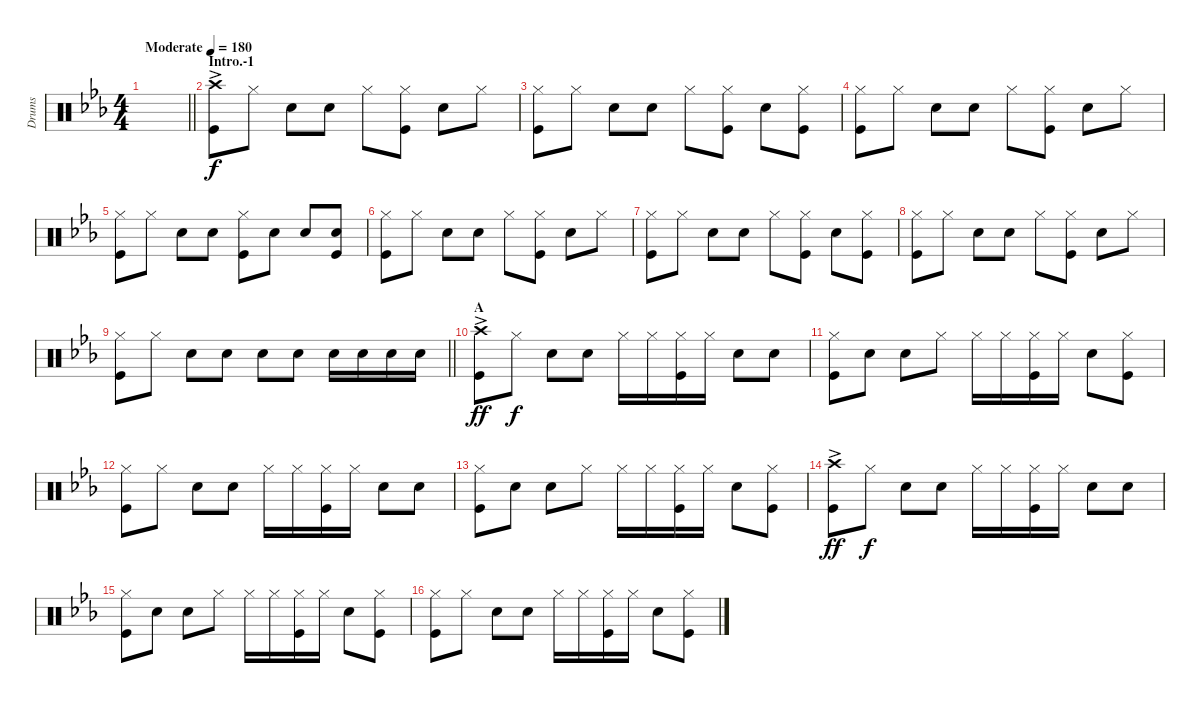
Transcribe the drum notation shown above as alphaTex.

\track ("Drums" "Drums") {instrument percussion}
\staff {score}
\articulation defaults
\ts (4 4)
\tempo (180 "Moderate")
\clef neutral
\barLineRight lightlight
\ks cminor
|
\section ("" "Intro.-1")
("Crash high (hit)"{ac} "Kick (hit)").8 "Hi-Hat (closed)".8{dy f} "Snare (hit) 2".8 "Snare (hit) 2".8 "Hi-Hat (closed)".8 ("Hi-Hat (closed)" "Kick (hit)").8 "Snare (hit) 2".8 "Hi-Hat (closed)".8 |
("Hi-Hat (closed)" "Kick (hit)").8 "Hi-Hat (closed)".8 "Snare (hit) 2".8 "Snare (hit) 2".8 "Hi-Hat (closed)".8 ("Hi-Hat (closed)" "Kick (hit)").8 "Snare (hit) 2".8 ("Hi-Hat (closed)" "Kick (hit)").8 |
("Hi-Hat (closed)" "Kick (hit)").8 "Hi-Hat (closed)".8 "Snare (hit) 2".8 "Snare (hit) 2".8 "Hi-Hat (closed)".8 ("Hi-Hat (closed)" "Kick (hit)").8 "Snare (hit) 2".8 "Hi-Hat (closed)".8 |
("Hi-Hat (closed)" "Kick (hit)").8 "Hi-Hat (closed)".8 "Snare (hit) 2".8 "Snare (hit) 2".8 ("Hi-Hat (closed)" "Kick (hit)").8 "Snare (hit) 2".8 "Snare (hit) 2".8 ("Snare (hit) 2" "Kick (hit)").8 |
("Hi-Hat (closed)" "Kick (hit)").8 "Hi-Hat (closed)".8 "Snare (hit) 2".8 "Snare (hit) 2".8 "Hi-Hat (closed)".8 ("Kick (hit)" "Hi-Hat (closed)").8 "Snare (hit) 2".8 "Hi-Hat (closed)".8 |
("Hi-Hat (closed)" "Kick (hit)").8 "Hi-Hat (closed)".8 "Snare (hit) 2".8 "Snare (hit) 2".8 "Hi-Hat (closed)".8 ("Hi-Hat (closed)" "Kick (hit)").8 "Snare (hit) 2".8 ("Kick (hit)" "Hi-Hat (closed)").8 |
("Hi-Hat (closed)" "Kick (hit)").8 "Hi-Hat (closed)".8 "Snare (hit) 2".8 "Snare (hit) 2".8 "Hi-Hat (closed)".8 ("Kick (hit)" "Hi-Hat (closed)").8 "Snare (hit) 2".8 "Hi-Hat (closed)".8 |
\barLineRight lightlight
("Hi-Hat (closed)" "Kick (hit)").8 "Hi-Hat (closed)".8 "Snare (hit) 2".8 "Snare (hit) 2".8 "Snare (hit) 2".8 "Snare (hit) 2".8 "Snare (hit) 2".16 "Snare (hit) 2".16 "Snare (hit) 2".16 "Snare (hit) 2".16 |
\section ("" "A")
("Crash high (hit)"{ac} "Kick (hit)").8{dy ff} "Hi-Hat (closed)".8{dy f} "Snare (hit) 2".8 "Snare (hit) 2".8 "Hi-Hat (closed)".16 "Hi-Hat (closed)".16 ("Hi-Hat (closed)" "Kick (hit)").16 "Hi-Hat (closed)".16 "Snare (hit) 2".8 "Snare (hit) 2".8 |
("Hi-Hat (closed)" "Kick (hit)").8 "Snare (hit) 2".8 "Snare (hit) 2".8 "Hi-Hat (closed)".8 "Hi-Hat (closed)".16 "Hi-Hat (closed)".16 ("Hi-Hat (closed)" "Kick (hit)").16 "Hi-Hat (closed)".16 "Snare (hit) 2".8 ("Hi-Hat (closed)" "Kick (hit)").8 |
("Hi-Hat (closed)" "Kick (hit)").8 "Hi-Hat (closed)".8 "Snare (hit) 2".8 "Snare (hit) 2".8 "Hi-Hat (closed)".16 "Hi-Hat (closed)".16 ("Hi-Hat (closed)" "Kick (hit)").16 "Hi-Hat (closed)".16 "Snare (hit) 2".8 "Snare (hit) 2".8 |
("Hi-Hat (closed)" "Kick (hit)").8 "Snare (hit) 2".8 "Snare (hit) 2".8 "Hi-Hat (closed)".8 "Hi-Hat (closed)".16 "Hi-Hat (closed)".16 ("Hi-Hat (closed)" "Kick (hit)").16 "Hi-Hat (closed)".16 "Snare (hit) 2".8 ("Hi-Hat (closed)" "Kick (hit)").8 |
("Crash high (hit)"{ac} "Kick (hit)").8{dy ff} "Hi-Hat (closed)".8{dy f} "Snare (hit) 2".8 "Snare (hit) 2".8 "Hi-Hat (closed)".16 "Hi-Hat (closed)".16 ("Hi-Hat (closed)" "Kick (hit)").16 "Hi-Hat (closed)".16 "Snare (hit) 2".8 "Snare (hit) 2".8 |
("Hi-Hat (closed)" "Kick (hit)").8 "Snare (hit) 2".8 "Snare (hit) 2".8 "Hi-Hat (closed)".8 "Hi-Hat (closed)".16 "Hi-Hat (closed)".16 ("Hi-Hat (closed)" "Kick (hit)").16 "Hi-Hat (closed)".16 "Snare (hit) 2".8 ("Hi-Hat (closed)" "Kick (hit)").8 |
("Hi-Hat (closed)" "Kick (hit)").8 "Hi-Hat (closed)".8 "Snare (hit) 2".8 "Snare (hit) 2".8 "Hi-Hat (closed)".16 "Hi-Hat (closed)".16 ("Hi-Hat (closed)" "Kick (hit)").16 "Hi-Hat (closed)".16 "Snare (hit) 2".8 ("Hi-Hat (closed)" "Kick (hit)").8
